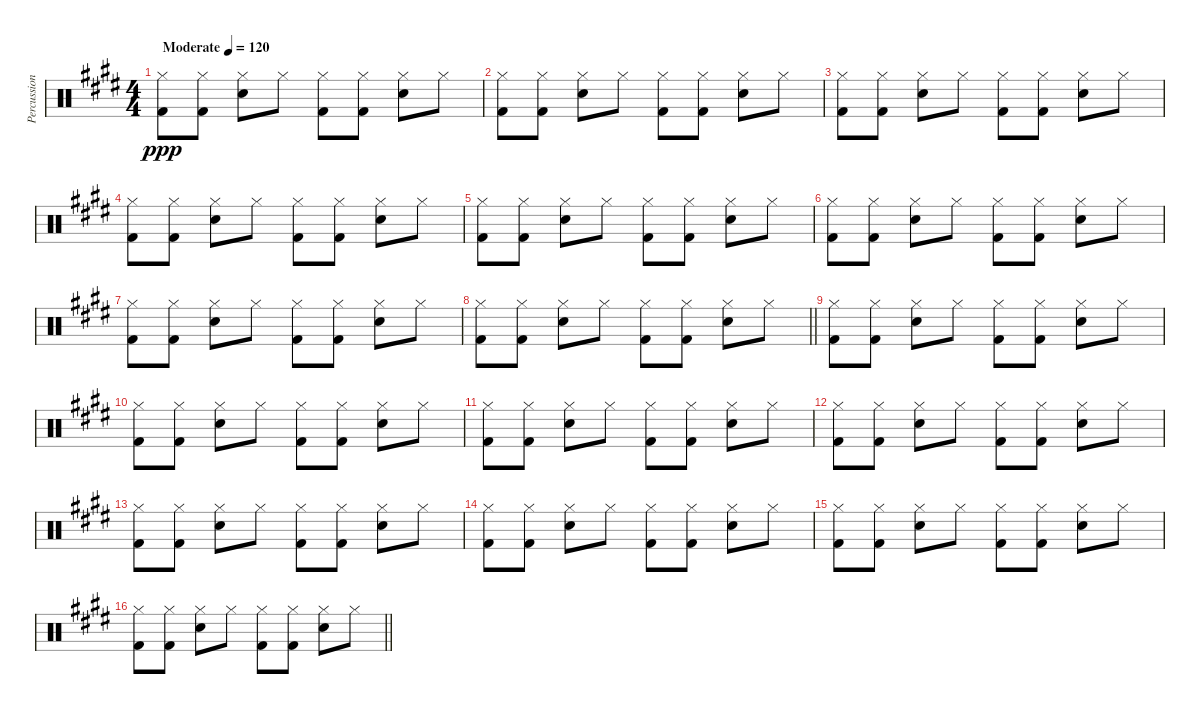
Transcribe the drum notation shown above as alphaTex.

\track ("Percussion" "Percussion") {solo instrument percussion}
\staff {score}
\articulation defaults
\ts (4 4)
\tempo (120 "Moderate")
\clef neutral
\ks e
("Hi-Hat (closed)" "Kick (hit) 2").8{dy ppp} ("Hi-Hat (closed)" "Kick (hit) 2").8 ("Hi-Hat (closed)" "Snare (hit) 2").8 "Hi-Hat (closed)".8 ("Hi-Hat (closed)" "Kick (hit) 2").8 ("Hi-Hat (closed)" "Kick (hit) 2").8 ("Hi-Hat (closed)" "Snare (hit) 2").8 "Hi-Hat (closed)".8 |
("Hi-Hat (closed)" "Kick (hit) 2").8 ("Hi-Hat (closed)" "Kick (hit) 2").8 ("Hi-Hat (closed)" "Snare (hit) 2").8 "Hi-Hat (closed)".8 ("Hi-Hat (closed)" "Kick (hit) 2").8 ("Hi-Hat (closed)" "Kick (hit) 2").8 ("Hi-Hat (closed)" "Snare (hit) 2").8 "Hi-Hat (closed)".8 |
("Hi-Hat (closed)" "Kick (hit) 2").8 ("Hi-Hat (closed)" "Kick (hit) 2").8 ("Hi-Hat (closed)" "Snare (hit) 2").8 "Hi-Hat (closed)".8 ("Hi-Hat (closed)" "Kick (hit) 2").8 ("Hi-Hat (closed)" "Kick (hit) 2").8 ("Hi-Hat (closed)" "Snare (hit) 2").8 "Hi-Hat (closed)".8 |
("Hi-Hat (closed)" "Kick (hit) 2").8 ("Hi-Hat (closed)" "Kick (hit) 2").8 ("Hi-Hat (closed)" "Snare (hit) 2").8 "Hi-Hat (closed)".8 ("Hi-Hat (closed)" "Kick (hit) 2").8 ("Hi-Hat (closed)" "Kick (hit) 2").8 ("Hi-Hat (closed)" "Snare (hit) 2").8 "Hi-Hat (closed)".8 |
("Hi-Hat (closed)" "Kick (hit) 2").8 ("Hi-Hat (closed)" "Kick (hit) 2").8 ("Hi-Hat (closed)" "Snare (hit) 2").8 "Hi-Hat (closed)".8 ("Hi-Hat (closed)" "Kick (hit) 2").8 ("Hi-Hat (closed)" "Kick (hit) 2").8 ("Hi-Hat (closed)" "Snare (hit) 2").8 "Hi-Hat (closed)".8 |
("Hi-Hat (closed)" "Kick (hit) 2").8 ("Hi-Hat (closed)" "Kick (hit) 2").8 ("Hi-Hat (closed)" "Snare (hit) 2").8 "Hi-Hat (closed)".8 ("Hi-Hat (closed)" "Kick (hit) 2").8 ("Hi-Hat (closed)" "Kick (hit) 2").8 ("Hi-Hat (closed)" "Snare (hit) 2").8 "Hi-Hat (closed)".8 |
("Hi-Hat (closed)" "Kick (hit) 2").8 ("Hi-Hat (closed)" "Kick (hit) 2").8 ("Hi-Hat (closed)" "Snare (hit) 2").8 "Hi-Hat (closed)".8 ("Hi-Hat (closed)" "Kick (hit) 2").8 ("Hi-Hat (closed)" "Kick (hit) 2").8 ("Hi-Hat (closed)" "Snare (hit) 2").8 "Hi-Hat (closed)".8 |
\barLineRight lightlight
("Hi-Hat (closed)" "Kick (hit) 2").8 ("Hi-Hat (closed)" "Kick (hit) 2").8 ("Hi-Hat (closed)" "Snare (hit) 2").8 "Hi-Hat (closed)".8 ("Hi-Hat (closed)" "Kick (hit) 2").8 ("Hi-Hat (closed)" "Kick (hit) 2").8 ("Hi-Hat (closed)" "Snare (hit) 2").8 "Hi-Hat (closed)".8 |
("Hi-Hat (closed)" "Kick (hit) 2").8 ("Hi-Hat (closed)" "Kick (hit) 2").8 ("Hi-Hat (closed)" "Snare (hit) 2").8 "Hi-Hat (closed)".8 ("Hi-Hat (closed)" "Kick (hit) 2").8 ("Hi-Hat (closed)" "Kick (hit) 2").8 ("Hi-Hat (closed)" "Snare (hit) 2").8 "Hi-Hat (closed)".8 |
("Hi-Hat (closed)" "Kick (hit) 2").8 ("Hi-Hat (closed)" "Kick (hit) 2").8 ("Hi-Hat (closed)" "Snare (hit) 2").8 "Hi-Hat (closed)".8 ("Hi-Hat (closed)" "Kick (hit) 2").8 ("Hi-Hat (closed)" "Kick (hit) 2").8 ("Hi-Hat (closed)" "Snare (hit) 2").8 "Hi-Hat (closed)".8 |
("Hi-Hat (closed)" "Kick (hit) 2").8 ("Hi-Hat (closed)" "Kick (hit) 2").8 ("Hi-Hat (closed)" "Snare (hit) 2").8 "Hi-Hat (closed)".8 ("Hi-Hat (closed)" "Kick (hit) 2").8 ("Hi-Hat (closed)" "Kick (hit) 2").8 ("Hi-Hat (closed)" "Snare (hit) 2").8 "Hi-Hat (closed)".8 |
("Hi-Hat (closed)" "Kick (hit) 2").8 ("Hi-Hat (closed)" "Kick (hit) 2").8 ("Hi-Hat (closed)" "Snare (hit) 2").8 "Hi-Hat (closed)".8 ("Hi-Hat (closed)" "Kick (hit) 2").8 ("Hi-Hat (closed)" "Kick (hit) 2").8 ("Hi-Hat (closed)" "Snare (hit) 2").8 "Hi-Hat (closed)".8 |
("Hi-Hat (closed)" "Kick (hit) 2").8 ("Hi-Hat (closed)" "Kick (hit) 2").8 ("Hi-Hat (closed)" "Snare (hit) 2").8 "Hi-Hat (closed)".8 ("Hi-Hat (closed)" "Kick (hit) 2").8 ("Hi-Hat (closed)" "Kick (hit) 2").8 ("Hi-Hat (closed)" "Snare (hit) 2").8 "Hi-Hat (closed)".8 |
("Hi-Hat (closed)" "Kick (hit) 2").8 ("Hi-Hat (closed)" "Kick (hit) 2").8 ("Hi-Hat (closed)" "Snare (hit) 2").8 "Hi-Hat (closed)".8 ("Hi-Hat (closed)" "Kick (hit) 2").8 ("Hi-Hat (closed)" "Kick (hit) 2").8 ("Hi-Hat (closed)" "Snare (hit) 2").8 "Hi-Hat (closed)".8 |
("Hi-Hat (closed)" "Kick (hit) 2").8 ("Hi-Hat (closed)" "Kick (hit) 2").8 ("Hi-Hat (closed)" "Snare (hit) 2").8 "Hi-Hat (closed)".8 ("Hi-Hat (closed)" "Kick (hit) 2").8 ("Hi-Hat (closed)" "Kick (hit) 2").8 ("Hi-Hat (closed)" "Snare (hit) 2").8 "Hi-Hat (closed)".8 |
\barLineRight lightlight
("Hi-Hat (closed)" "Kick (hit) 2").8 ("Hi-Hat (closed)" "Kick (hit) 2").8 ("Hi-Hat (closed)" "Snare (hit) 2").8 "Hi-Hat (closed)".8 ("Hi-Hat (closed)" "Kick (hit) 2").8 ("Hi-Hat (closed)" "Kick (hit) 2").8 ("Hi-Hat (closed)" "Snare (hit) 2").8 "Hi-Hat (closed)".8
